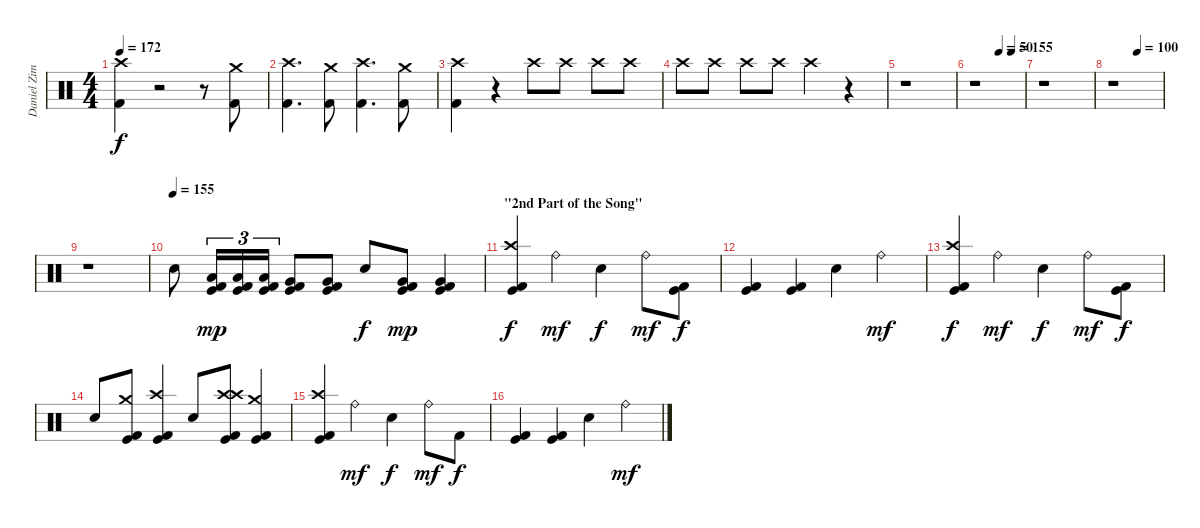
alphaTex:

\track ("Daniel Zimmermann - Drums" "Daniel Zim") {instrument percussion}
\staff {score}
\articulation defaults
\ts (4 4)
\tempo 172
\clef neutral
\ks c
("Kick (hit) 2" "Crash high (hit)").4{dy f} r.2 r.8 ("Kick (hit) 2" "Crash medium (hit)").8 |
("Kick (hit) 2" "Crash high (hit)").4{d} ("Kick (hit) 2" "Crash medium (hit)").8 ("Kick (hit) 2" "Crash high (hit)").4{d} ("Kick (hit) 2" "Crash medium (hit)").8 |
("Kick (hit) 2" "Crash high (hit)").4 r.4 "Crash high (hit)".8 "Crash high (hit)".8 "Crash high (hit)".8 "Crash high (hit)".8 |
"Crash high (hit)".8 "Crash high (hit)".8 "Crash high (hit)".8 "Crash high (hit)".8 "Crash high (hit)".4 r.4 |
r.1 |
\tempo (50 0.5)
\tempo (155 0.75)
r.1 |
r.1 |
\tempo (100 0.5)
r.1 |
r.1 |
\tempo (155)
"Electric Snare (hit)".8 ("Kick (hit) 2" "Kick (hit)" "Low Tom (hit)").16{tu (3 2) dy mp} ("Kick (hit) 2" "Kick (hit)" "Low Tom (hit)").16{tu (3 2)} ("Kick (hit) 2" "Kick (hit)" "Low Tom (hit)").16{tu (3 2)} ("Kick (hit) 2" "Kick (hit)" "Very Low Tom (hit)").8 ("Kick (hit) 2" "Kick (hit)" "Very Low Tom (hit)").8 "Electric Snare (hit)".8{dy f} ("Kick (hit) 2" "Kick (hit)" "Very Low Tom (hit)").8{dy mp} ("Kick (hit) 2" "Kick (hit)" "Very Low Tom (hit)").4 |
\section ("" "\"2nd Part of the Song\"")
("Kick (hit) 2" "Kick (hit)" "Crash high (hit)").4{dy f} "Ride (bell)".4{dy mf} "Electric Snare (hit)".4{dy f} "Ride (bell)".8{dy mf} ("Kick (hit) 2" "Kick (hit)").8{dy f} |
("Kick (hit) 2" "Kick (hit)").4 ("Kick (hit) 2" "Kick (hit)").4 "Electric Snare (hit)".4 "Ride (bell)".4{dy mf} |
("Kick (hit) 2" "Kick (hit)" "Crash high (hit)").4{dy f} "Ride (bell)".4{dy mf} "Electric Snare (hit)".4{dy f} "Ride (bell)".8{dy mf} ("Kick (hit) 2" "Kick (hit)").8{dy f} |
"Electric Snare (hit)".8 ("Kick (hit) 2" "Kick (hit)" "Crash medium (hit)").8 ("Kick (hit) 2" "Kick (hit)" "Crash high (hit)").4 "Electric Snare (hit)".8 ("Kick (hit) 2" "Kick (hit)" "Crash high (hit)" "Crash high (hit)").8 ("Kick (hit) 2" "Kick (hit)" "Crash medium (hit)").4 |
("Kick (hit) 2" "Kick (hit)" "Crash high (hit)").4 "Ride (bell)".4{dy mf} "Electric Snare (hit)".4{dy f} "Ride (bell)".8{dy mf} "Kick (hit) 2".8{dy f} |
("Kick (hit) 2" "Kick (hit)").4 ("Kick (hit) 2" "Kick (hit)").4 "Electric Snare (hit)".4 "Ride (bell)".4{dy mf}
